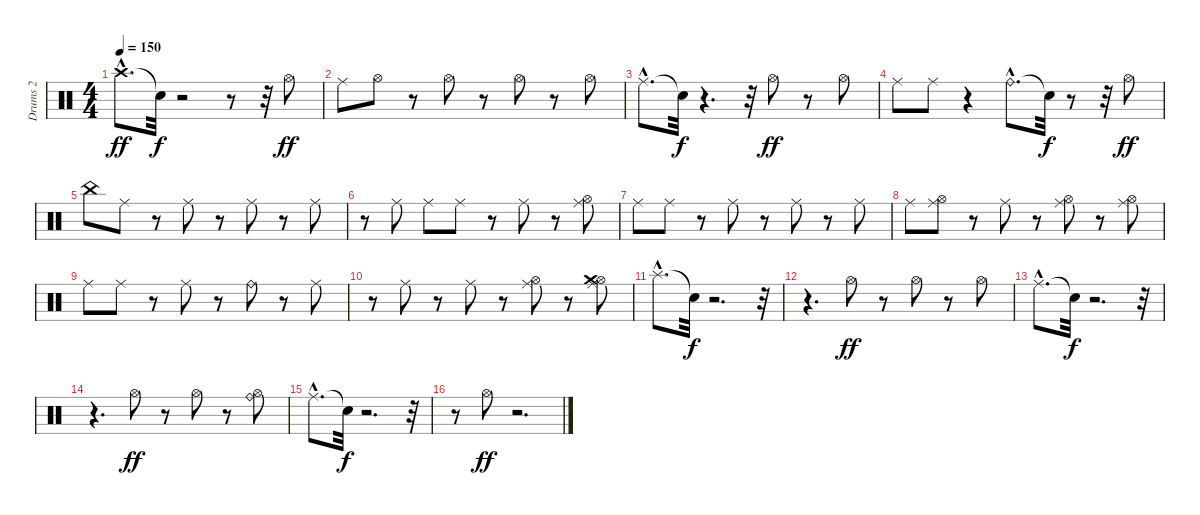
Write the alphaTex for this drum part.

\track ("Drums 2" "Drums 2") {instrument percussion}
\staff {score}
\articulation defaults
\ts (4 4)
\tempo 150
\clef neutral
\ks c "Crash high (hit)"{hac}.8{d dy ff} "Snare (hit)"{t}.32{dy f}
r.2 r.8 r.32 "Hi-Hat (open)".8{dy ff} |
"Ride (middle)".8 "Hi-Hat (open)".8 r.8 "Hi-Hat (open)".8 r.8 "Hi-Hat (open)".8 r.8 "Hi-Hat (open)".8 |
"Ride (middle)"{hac}.8{d} "Snare (hit)"{t}.32{dy f} r.4{d} r.32 "Hi-Hat (open)".8{dy ff} r.8 "Hi-Hat (open)".8 |
"Ride (middle)".8 "Ride (middle)".8 r.4 "Ride (bell)"{hac}.8{d} "Snare (hit)"{t}.32{dy f} r.8 r.32 "Hi-Hat (open)".8{dy ff} |
"China (hit)".8 "Ride (middle)".8 r.8 "Ride (middle)".8 r.8 "Ride (middle)".8 r.8 "Ride (middle)".8 |
r.8 "Ride (middle)".8 "Ride (middle)".8 "Ride (middle)".8 r.8 "Ride (middle)".8 r.8 ("Hi-Hat (open)" "Ride (middle)").8 |
"Ride (middle)".8 "Ride (middle)".8 r.8 "Ride (middle)".8 r.8 "Ride (middle)".8 r.8 "Ride (middle)".8 |
"Ride (middle)".8 ("Hi-Hat (open)" "Ride (middle)").8 r.8 "Ride (middle)".8 r.8 ("Hi-Hat (open)" "Ride (middle)").8 r.8 ("Hi-Hat (open)" "Ride (middle)").8 |
"Ride (middle)".8 "Ride (middle)".8 r.8 "Ride (middle)".8 r.8 "Ride (bell)".8 r.8 "Ride (middle)".8 |
r.8 "Ride (middle)".8 r.8 "Ride (middle)".8 r.8 ("Hi-Hat (open)" "Ride (middle)").8 r.8 ("Hi-Hat (open)" "Ride (middle)" "Crash medium (hit)").8 |
"Splash (hit)"{hac}.8{d} "Snare (hit)"{t}.32{dy f} r.2{d} r.32 |
r.4{d} "Hi-Hat (open)".8{dy ff} r.8 "Hi-Hat (open)".8 r.8 "Hi-Hat (open)".8 |
"Ride (middle)"{hac}.8{d} "Snare (hit)"{t}.32{dy f} r.2{d} r.32 |
r.4{d} "Hi-Hat (open)".8{dy ff} r.8 "Hi-Hat (open)".8 r.8 ("Hi-Hat (open)" "Ride (bell)").8 |
"Ride (middle)"{hac}.8{d} "Snare (hit)"{t}.32{dy f} r.2{d} r.32 |
r.8 "Hi-Hat (open)".8{dy ff} r.2{d}
